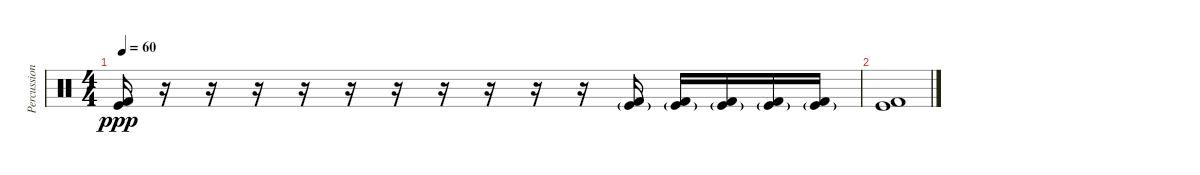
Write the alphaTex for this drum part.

\track ("Percussion" "Percussion") {instrument percussion}
\staff {score}
\articulation defaults
\ts (4 4)
\tempo 60
\clef neutral
\ks c
("Kick (hit)" "Kick (hit) 2").16{dy ppp} r.16 r.16 r.16 r.16 r.16 r.16 r.16 r.16 r.16 r.16 ("Kick (hit)"{g} "Kick (hit) 2").16 ("Kick (hit)"{g} "Kick (hit) 2").16 ("Kick (hit)"{g} "Kick (hit) 2").16 ("Kick (hit)"{g} "Kick (hit) 2").16 ("Kick (hit)"{g} "Kick (hit) 2").16 |
("Kick (hit)" "Kick (hit) 2").1
